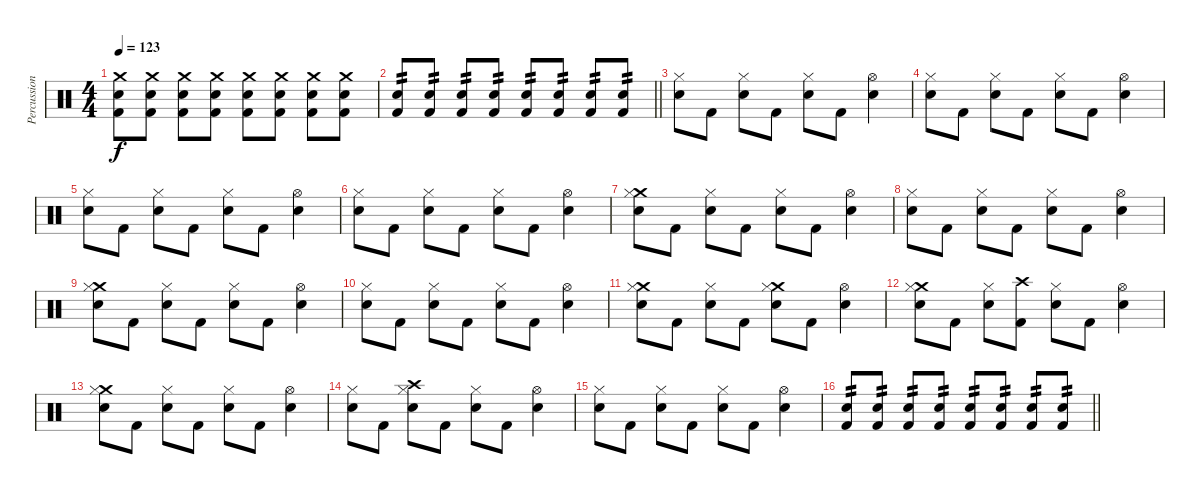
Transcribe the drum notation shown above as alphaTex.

\track ("Percussion" "Percussion") {instrument percussion}
\staff {score}
\articulation defaults
\ts (4 4)
\tempo 123
\clef neutral
\ks c
("Crash medium (hit)" "Snare (hit) 2" "Kick (hit) 2").8{dy f} ("Crash medium (hit)" "Snare (hit) 2" "Kick (hit) 2").8 ("Crash medium (hit)" "Snare (hit) 2" "Kick (hit) 2").8 ("Crash medium (hit)" "Snare (hit) 2" "Kick (hit) 2").8 ("Crash medium (hit)" "Snare (hit) 2" "Kick (hit) 2").8 ("Crash medium (hit)" "Snare (hit) 2" "Kick (hit) 2").8 ("Crash medium (hit)" "Snare (hit) 2" "Kick (hit) 2").8 ("Crash medium (hit)" "Snare (hit) 2" "Kick (hit) 2").8 |
\barLineRight lightlight
("Snare (hit) 2" "Kick (hit) 2").8{tp 2} ("Snare (hit) 2" "Kick (hit) 2").8{tp 2} ("Snare (hit) 2" "Kick (hit) 2").8{tp 2} ("Snare (hit) 2" "Kick (hit) 2").8{tp 2} ("Snare (hit) 2" "Kick (hit) 2").8{tp 2} ("Snare (hit) 2" "Kick (hit) 2").8{tp 2} ("Snare (hit) 2" "Kick (hit) 2").8{tp 2} ("Snare (hit) 2" "Kick (hit) 2").8{tp 2} |
("Hi-Hat (closed)" "Snare (hit) 2").8 "Kick (hit) 2".8 ("Hi-Hat (closed)" "Snare (hit) 2").8 "Kick (hit) 2".8 ("Hi-Hat (closed)" "Snare (hit) 2").8 "Kick (hit) 2".8 ("Hi-Hat (open)" "Snare (hit) 2").4 |
("Hi-Hat (closed)" "Snare (hit) 2").8 "Kick (hit) 2".8 ("Hi-Hat (closed)" "Snare (hit) 2").8 "Kick (hit) 2".8 ("Hi-Hat (closed)" "Snare (hit) 2").8 "Kick (hit) 2".8 ("Hi-Hat (open)" "Snare (hit) 2").4 |
("Hi-Hat (closed)" "Snare (hit) 2").8 "Kick (hit) 2".8 ("Hi-Hat (closed)" "Snare (hit) 2").8 "Kick (hit) 2".8 ("Hi-Hat (closed)" "Snare (hit) 2").8 "Kick (hit) 2".8 ("Hi-Hat (open)" "Snare (hit) 2").4 |
("Hi-Hat (closed)" "Snare (hit) 2").8 "Kick (hit) 2".8 ("Hi-Hat (closed)" "Snare (hit) 2").8 "Kick (hit) 2".8 ("Hi-Hat (closed)" "Snare (hit) 2").8 "Kick (hit) 2".8 ("Hi-Hat (open)" "Snare (hit) 2").4 |
("Crash medium (hit)" "Hi-Hat (closed)" "Snare (hit) 2").8 "Kick (hit) 2".8 ("Hi-Hat (closed)" "Snare (hit) 2").8 "Kick (hit) 2".8 ("Hi-Hat (closed)" "Snare (hit) 2").8 "Kick (hit) 2".8 ("Hi-Hat (open)" "Snare (hit) 2").4 |
("Hi-Hat (closed)" "Snare (hit) 2").8 "Kick (hit) 2".8 ("Hi-Hat (closed)" "Snare (hit) 2").8 "Kick (hit) 2".8 ("Hi-Hat (closed)" "Snare (hit) 2").8 "Kick (hit) 2".8 ("Hi-Hat (open)" "Snare (hit) 2").4 |
("Crash medium (hit)" "Hi-Hat (closed)" "Snare (hit) 2").8 "Kick (hit) 2".8 ("Hi-Hat (closed)" "Snare (hit) 2").8 "Kick (hit) 2".8 ("Hi-Hat (closed)" "Snare (hit) 2").8 "Kick (hit) 2".8 ("Hi-Hat (open)" "Snare (hit) 2").4 |
("Hi-Hat (closed)" "Snare (hit) 2").8 "Kick (hit) 2".8 ("Hi-Hat (closed)" "Snare (hit) 2").8 "Kick (hit) 2".8 ("Hi-Hat (closed)" "Snare (hit) 2").8 "Kick (hit) 2".8 ("Hi-Hat (open)" "Snare (hit) 2").4 |
("Crash medium (hit)" "Hi-Hat (closed)" "Snare (hit) 2").8 "Kick (hit) 2".8 ("Hi-Hat (closed)" "Snare (hit) 2").8 "Kick (hit) 2".8 ("Crash medium (hit)" "Hi-Hat (closed)" "Snare (hit) 2").8 "Kick (hit) 2".8 ("Hi-Hat (open)" "Snare (hit) 2").4 |
("Crash medium (hit)" "Hi-Hat (closed)" "Snare (hit) 2").8 "Kick (hit) 2".8 ("Hi-Hat (closed)" "Snare (hit) 2").8 ("Crash high (hit)" "Kick (hit) 2").8 ("Hi-Hat (closed)" "Snare (hit) 2").8 "Kick (hit) 2".8 ("Hi-Hat (open)" "Snare (hit) 2").4 |
("Crash medium (hit)" "Hi-Hat (closed)" "Snare (hit) 2").8 "Kick (hit) 2".8 ("Hi-Hat (closed)" "Snare (hit) 2").8 "Kick (hit) 2".8 ("Hi-Hat (closed)" "Snare (hit) 2").8 "Kick (hit) 2".8 ("Hi-Hat (open)" "Snare (hit) 2").4 |
("Hi-Hat (closed)" "Snare (hit) 2").8 "Kick (hit) 2".8 ("Crash high (hit)" "Hi-Hat (closed)" "Snare (hit) 2").8 "Kick (hit) 2".8 ("Hi-Hat (closed)" "Snare (hit) 2").8 "Kick (hit) 2".8 ("Hi-Hat (open)" "Snare (hit) 2").4 |
("Hi-Hat (closed)" "Snare (hit) 2").8 "Kick (hit) 2".8 ("Hi-Hat (closed)" "Snare (hit) 2").8 "Kick (hit) 2".8 ("Hi-Hat (closed)" "Snare (hit) 2").8 "Kick (hit) 2".8 ("Hi-Hat (open)" "Snare (hit) 2").4 |
\barLineRight lightlight
("Snare (hit) 2" "Kick (hit) 2").8{tp 2} ("Snare (hit) 2" "Kick (hit) 2").8{tp 2} ("Snare (hit) 2" "Kick (hit) 2").8{tp 2} ("Snare (hit) 2" "Kick (hit) 2").8{tp 2} ("Snare (hit) 2" "Kick (hit) 2").8{tp 2} ("Snare (hit) 2" "Kick (hit) 2").8{tp 2} ("Snare (hit) 2" "Kick (hit) 2").8{tp 2} ("Snare (hit) 2" "Kick (hit) 2").8{tp 2}
